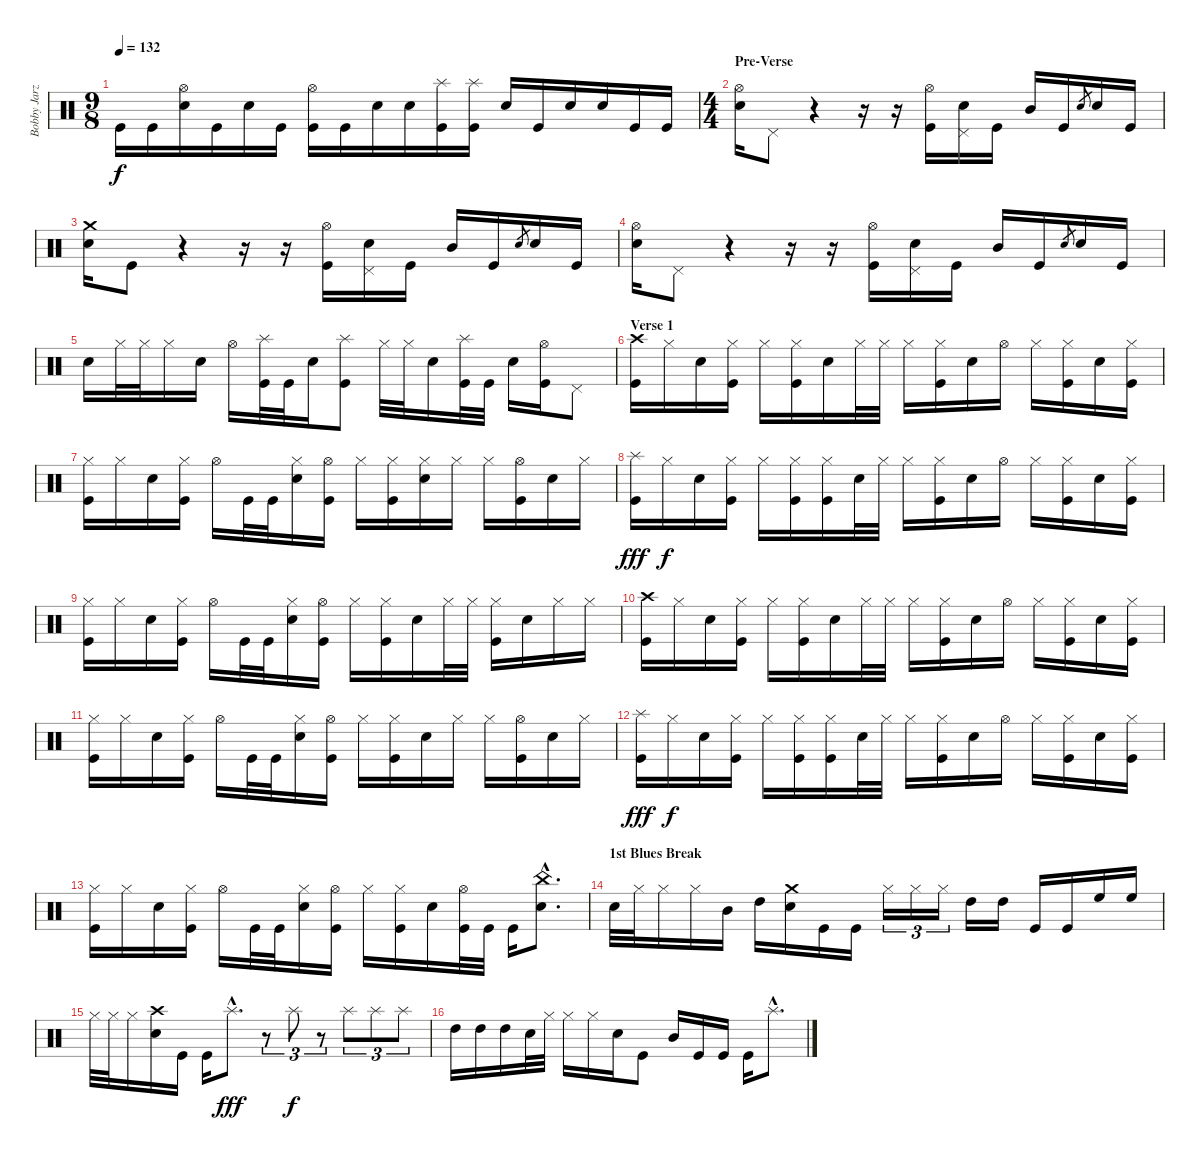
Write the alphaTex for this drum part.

\track ("Bobby Jarzombek" "Bobby Jarz") {instrument percussion}
\staff {score}
\articulation defaults
\ts (9 8)
\tempo 132
\clef neutral
\ks c "Kick (hit)".16{dy f} "Kick (hit)".16
("Hi-Hat (open)" "Electric Snare (hit)").16 "Kick (hit)".16 "Electric Snare (hit)".16 "Kick (hit)".16 ("Hi-Hat (open)" "Kick (hit)").16 "Kick (hit)".16 "Electric Snare (hit)".16 "Electric Snare (hit)".16 ("Splash (hit)" "Kick (hit)").16 ("Splash (hit)" "Kick (hit)").16 "Electric Snare (hit)".16 "Kick (hit)".16 "Electric Snare (hit)".16 "Electric Snare (hit)".16 "Kick (hit)".16 "Kick (hit)".16 |
\ts (4 4)
\section ("" "Pre-Verse")
("Hi-Hat (open)" "Electric Snare (hit)").16 "Pedal Hi-Hat (hit)".8 r.4 r.16 r.16 ("Hi-Hat (open)" "Kick (hit)").16 ("Electric Snare (hit)" "Pedal Hi-Hat (hit)").16 "Kick (hit)".16 "Mid Tom (hit)".16 "Kick (hit)".16 "Electric Snare (hit)".8{gr} "Electric Snare (hit)".16 "Kick (hit)".16 |
("Crash medium (hit)" "Electric Snare (hit)").16 "Kick (hit)".8 r.4 r.16 r.16 ("Hi-Hat (open)" "Kick (hit)").16 ("Electric Snare (hit)" "Pedal Hi-Hat (hit)").16 "Kick (hit)".16 "Mid Tom (hit)".16 "Kick (hit)".16 "Electric Snare (hit)".8{gr} "Electric Snare (hit)".16 "Kick (hit)".16 |
("Hi-Hat (open)" "Electric Snare (hit)").16 "Pedal Hi-Hat (hit)".8 r.4 r.16 r.16 ("Hi-Hat (open)" "Kick (hit)").16 ("Electric Snare (hit)" "Pedal Hi-Hat (hit)").16 "Kick (hit)".16 "Mid Tom (hit)".16 "Kick (hit)".16 "Electric Snare (hit)".8{gr} "Electric Snare (hit)".16 "Kick (hit)".16 |
"Electric Snare (hit)".16 "Hi-Hat (closed)".32 "Hi-Hat (closed)".32 "Hi-Hat (closed)".16 "Electric Snare (hit)".16 "Hi-Hat (open)".16 ("Splash (hit)" "Kick (hit)").32 "Kick (hit)".32 "Electric Snare (hit)".16 ("Splash (hit)" "Kick (hit)").8 "Hi-Hat (closed)".32 "Hi-Hat (closed)".32 "Electric Snare (hit)".16 ("Splash (hit)" "Kick (hit)").32 "Kick (hit)".32 "Electric Snare (hit)".16 ("Hi-Hat (open)" "Kick (hit)").16 "Pedal Hi-Hat (hit)".8 |
\section ("" "Verse 1")
("Crash high (hit)" "Kick (hit)").16 "Hi-Hat (closed)".16 "Electric Snare (hit)".16 ("Hi-Hat (closed)" "Kick (hit)").16 "Hi-Hat (closed)".16 ("Hi-Hat (closed)" "Kick (hit)").16 "Electric Snare (hit)".16 "Hi-Hat (closed)".32 "Hi-Hat (closed)".32 "Hi-Hat (closed)".16 ("Hi-Hat (closed)" "Kick (hit)").16 "Electric Snare (hit)".16 "Hi-Hat (open)".16 "Hi-Hat (closed)".16 ("Hi-Hat (closed)" "Kick (hit)").16 "Electric Snare (hit)".16 ("Hi-Hat (closed)" "Kick (hit)").16 |
("Hi-Hat (closed)" "Kick (hit)").16 "Hi-Hat (closed)".16 "Electric Snare (hit)".16 ("Hi-Hat (closed)" "Kick (hit)").16 "Hi-Hat (open)".16 "Kick (hit)".32 "Kick (hit)".32 ("Hi-Hat (closed)" "Electric Snare (hit)").16 ("Hi-Hat (open)" "Kick (hit)").16 "Hi-Hat (closed)".16 ("Hi-Hat (closed)" "Kick (hit)").16 ("Hi-Hat (closed)" "Electric Snare (hit)").16 "Hi-Hat (closed)".16 "Hi-Hat (closed)".16 ("Hi-Hat (open)" "Kick (hit)").16 "Electric Snare (hit)".16 "Hi-Hat (closed)".16 |
("Splash (hit)" "Kick (hit)").16{dy fff} "Hi-Hat (closed)".16{dy f} "Electric Snare (hit)".16 ("Hi-Hat (closed)" "Kick (hit)").16 "Hi-Hat (closed)".16 ("Hi-Hat (closed)" "Kick (hit)").16 ("Hi-Hat (closed)" "Kick (hit)").16 "Electric Snare (hit)".32 "Hi-Hat (closed)".32 "Hi-Hat (closed)".16 ("Hi-Hat (closed)" "Kick (hit)").16 "Electric Snare (hit)".16 "Hi-Hat (open)".16 "Hi-Hat (closed)".16 ("Hi-Hat (closed)" "Kick (hit)").16 "Electric Snare (hit)".16 ("Hi-Hat (closed)" "Kick (hit)").16 |
("Hi-Hat (closed)" "Kick (hit)").16 "Hi-Hat (closed)".16 "Electric Snare (hit)".16 ("Hi-Hat (closed)" "Kick (hit)").16 "Hi-Hat (open)".16 "Kick (hit)".32 "Kick (hit)".32 ("Hi-Hat (closed)" "Electric Snare (hit)").16 ("Hi-Hat (open)" "Kick (hit)").16 "Hi-Hat (closed)".16 ("Hi-Hat (closed)" "Kick (hit)").16 "Electric Snare (hit)".16 "Hi-Hat (closed)".32 "Hi-Hat (closed)".32 ("Hi-Hat (closed)" "Kick (hit)").16 "Electric Snare (hit)".16 "Hi-Hat (closed)".16 "Hi-Hat (closed)".16 |
("Crash high (hit)" "Kick (hit)").16 "Hi-Hat (closed)".16 "Electric Snare (hit)".16 ("Hi-Hat (closed)" "Kick (hit)").16 "Hi-Hat (closed)".16 ("Hi-Hat (closed)" "Kick (hit)").16 "Electric Snare (hit)".16 "Hi-Hat (closed)".32 "Hi-Hat (closed)".32 "Hi-Hat (closed)".16 ("Hi-Hat (closed)" "Kick (hit)").16 "Electric Snare (hit)".16 "Hi-Hat (open)".16 "Hi-Hat (closed)".16 ("Hi-Hat (closed)" "Kick (hit)").16 "Electric Snare (hit)".16 ("Hi-Hat (closed)" "Kick (hit)").16 |
("Hi-Hat (closed)" "Kick (hit)").16 "Hi-Hat (closed)".16 "Electric Snare (hit)".16 ("Hi-Hat (closed)" "Kick (hit)").16 "Hi-Hat (open)".16 "Kick (hit)".32 "Kick (hit)".32 ("Hi-Hat (closed)" "Electric Snare (hit)").16 ("Hi-Hat (open)" "Kick (hit)").16 "Hi-Hat (closed)".16 ("Hi-Hat (closed)" "Kick (hit)").16 "Electric Snare (hit)".16 "Hi-Hat (closed)".16 "Hi-Hat (closed)".16 ("Hi-Hat (open)" "Kick (hit)").16 "Electric Snare (hit)".16 "Hi-Hat (closed)".16 |
("Splash (hit)" "Kick (hit)").16{dy fff} "Hi-Hat (closed)".16{dy f} "Electric Snare (hit)".16 ("Hi-Hat (closed)" "Kick (hit)").16 "Hi-Hat (closed)".16 ("Hi-Hat (closed)" "Kick (hit)").16 ("Hi-Hat (closed)" "Kick (hit)").16 "Electric Snare (hit)".32 "Hi-Hat (closed)".32 "Hi-Hat (closed)".16 ("Hi-Hat (closed)" "Kick (hit)").16 "Electric Snare (hit)".16 "Hi-Hat (open)".16 "Hi-Hat (closed)".16 ("Hi-Hat (closed)" "Kick (hit)").16 "Electric Snare (hit)".16 ("Hi-Hat (closed)" "Kick (hit)").16 |
("Hi-Hat (closed)" "Kick (hit)").16 "Hi-Hat (closed)".16 "Electric Snare (hit)".16 ("Hi-Hat (closed)" "Kick (hit)").16 "Hi-Hat (open)".16 "Kick (hit)".32 "Kick (hit)".32 ("Hi-Hat (closed)" "Electric Snare (hit)").16 ("Hi-Hat (open)" "Kick (hit)").16 "Hi-Hat (closed)".16 ("Hi-Hat (closed)" "Kick (hit)").16 "Electric Snare (hit)".16 ("Hi-Hat (open)" "Kick (hit)").32 "Kick (hit)".32 "Kick (hit)".16 ("China (hit)"{hac} "Electric Snare (hit)"{hac}).8{d} |
\section ("" "1st Blues Break")
"Electric Snare (hit)".32 "Hi-Hat (closed)".32 "Hi-Hat (closed)".16 "Hi-Hat (closed)".16 "Mid Tom (hit)".16 "High Tom (hit)".16 ("Crash medium (hit)" "Electric Snare (hit)").16 "Kick (hit)".16 "Kick (hit)".16 "Hi-Hat (closed)".16{tu (3 2)} "Hi-Hat (closed)".16{tu (3 2)} "Hi-Hat (closed)".16{tu (3 2)} "High Tom (hit)".16 "High Tom (hit)".16 "Kick (hit)".16 "Kick (hit)".16 "High Floor Tom (hit)".16 "High Floor Tom (hit)".16 |
"Hi-Hat (closed)".32 "Hi-Hat (closed)".32 "Hi-Hat (closed)".16 ("Crash high (hit)" "Electric Snare (hit)").16 "Kick (hit)".16 "Kick (hit)".16 "Splash (hit)"{hac}.8{d dy fff} r.8{tu (3 2)} "Splash (hit)".8{tu (3 2) dy f} r.8{tu (3 2)} "Splash (hit)".8{tu (3 2)} "Splash (hit)".8{tu (3 2)} "Splash (hit)".8{tu (3 2)} |
"High Tom (hit)".16 "High Tom (hit)".16 "High Tom (hit)".16 "Electric Snare (hit)".32 "Hi-Hat (closed)".32 "Hi-Hat (closed)".16 "Hi-Hat (closed)".16 "Electric Snare (hit)".16 "Kick (hit)".8 "Mid Tom (hit)".16 "Kick (hit)".16 "Kick (hit)".16 "Kick (hit)".16 "Splash (hit)"{hac}.8{d}
